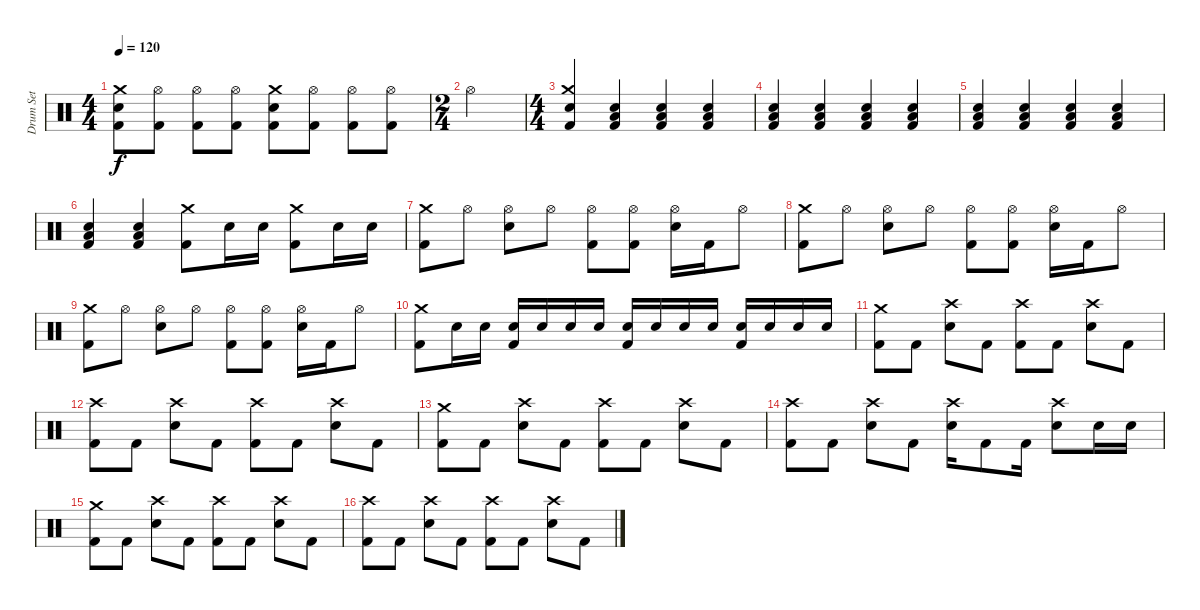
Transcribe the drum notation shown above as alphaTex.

\track ("Drum Set" "Drum Set") {instrument percussion}
\staff {score}
\articulation defaults
\ts (4 4)
\tempo 120
\clef neutral
\ks c
("Kick (hit) 2" "Crash medium (hit)" "Snare (hit) 2").8{dy f} ("Kick (hit) 2" "Hi-Hat (open)").8 ("Kick (hit) 2" "Hi-Hat (open)").8 ("Kick (hit) 2" "Hi-Hat (open)").8 ("Kick (hit) 2" "Crash medium (hit)" "Snare (hit) 2").8 ("Kick (hit) 2" "Hi-Hat (open)").8 ("Kick (hit) 2" "Hi-Hat (open)").8 ("Kick (hit) 2" "Hi-Hat (open)").8 |
\ts (2 4)
"Hi-Hat (open)".2 |
\ts (4 4)
("Kick (hit) 2" "Snare (hit) 2" "Crash medium (hit)").4 ("Kick (hit) 2" "Snare (hit) 2" "Low Tom (hit)").4 ("Kick (hit) 2" "Snare (hit) 2" "Low Tom (hit)").4 ("Kick (hit) 2" "Snare (hit) 2" "Low Tom (hit)").4 |
("Kick (hit) 2" "Snare (hit) 2" "Low Tom (hit)").4 ("Kick (hit) 2" "Snare (hit) 2" "Low Tom (hit)").4 ("Kick (hit) 2" "Snare (hit) 2" "Low Tom (hit)").4 ("Kick (hit) 2" "Snare (hit) 2" "Low Tom (hit)").4 |
("Kick (hit) 2" "Snare (hit) 2" "Low Tom (hit)").4 ("Kick (hit) 2" "Snare (hit) 2" "Low Tom (hit)").4 ("Kick (hit) 2" "Snare (hit) 2" "Low Tom (hit)").4 ("Kick (hit) 2" "Snare (hit) 2" "Low Tom (hit)").4 |
("Kick (hit) 2" "Snare (hit) 2" "Low Tom (hit)").4 ("Kick (hit) 2" "Snare (hit) 2" "Low Tom (hit)").4 ("Kick (hit) 2" "Crash medium (hit)").8 "Snare (hit) 2".16 "Snare (hit) 2".16 ("Kick (hit) 2" "Crash medium (hit)").8 "Snare (hit) 2".16 "Snare (hit) 2".16 |
("Crash medium (hit)" "Kick (hit) 2").8 "Hi-Hat (open)".8 ("Snare (hit) 2" "Hi-Hat (open)").8 "Hi-Hat (open)".8 ("Kick (hit) 2" "Hi-Hat (open)").8 ("Kick (hit) 2" "Hi-Hat (open)").8 ("Snare (hit) 2" "Hi-Hat (open)").16 "Kick (hit) 2".16 "Hi-Hat (open)".8 |
("Crash medium (hit)" "Kick (hit) 2").8 "Hi-Hat (open)".8 ("Snare (hit) 2" "Hi-Hat (open)").8 "Hi-Hat (open)".8 ("Kick (hit) 2" "Hi-Hat (open)").8 ("Kick (hit) 2" "Hi-Hat (open)").8 ("Snare (hit) 2" "Hi-Hat (open)").16 "Kick (hit) 2".16 "Hi-Hat (open)".8 |
("Crash medium (hit)" "Kick (hit) 2").8 "Hi-Hat (open)".8 ("Snare (hit) 2" "Hi-Hat (open)").8 "Hi-Hat (open)".8 ("Kick (hit) 2" "Hi-Hat (open)").8 ("Kick (hit) 2" "Hi-Hat (open)").8 ("Snare (hit) 2" "Hi-Hat (open)").16 "Kick (hit) 2".16 "Hi-Hat (open)".8 |
("Kick (hit) 2" "Crash medium (hit)").8 "Snare (hit) 2".16 "Snare (hit) 2".16 ("Snare (hit) 2" "Kick (hit) 2").16 "Snare (hit) 2".16 "Snare (hit) 2".16 "Snare (hit) 2".16 ("Snare (hit) 2" "Kick (hit) 2").16 "Snare (hit) 2".16 "Snare (hit) 2".16 "Snare (hit) 2".16 ("Snare (hit) 2" "Kick (hit) 2").16 "Snare (hit) 2".16 "Snare (hit) 2".16 "Snare (hit) 2".16 |
("Kick (hit) 2" "Crash medium (hit)").8 "Kick (hit) 2".8 ("Snare (hit) 2" "Crash high (hit)").8 "Kick (hit) 2".8 ("Kick (hit) 2" "Crash high (hit)").8 "Kick (hit) 2".8 ("Snare (hit) 2" "Crash high (hit)").8 "Kick (hit) 2".8 |
("Kick (hit) 2" "Crash high (hit)").8 "Kick (hit) 2".8 ("Snare (hit) 2" "Crash high (hit)").8 "Kick (hit) 2".8 ("Kick (hit) 2" "Crash high (hit)").8 "Kick (hit) 2".8 ("Snare (hit) 2" "Crash high (hit)").8 "Kick (hit) 2".8 |
("Kick (hit) 2" "Crash medium (hit)").8 "Kick (hit) 2".8 ("Snare (hit) 2" "Crash high (hit)").8 "Kick (hit) 2".8 ("Kick (hit) 2" "Crash high (hit)").8 "Kick (hit) 2".8 ("Snare (hit) 2" "Crash high (hit)").8 "Kick (hit) 2".8 |
("Kick (hit) 2" "Crash high (hit)").8 "Kick (hit) 2".8 ("Crash high (hit)" "Snare (hit) 2").8 "Kick (hit) 2".8 ("Snare (hit) 2" "Crash high (hit)").16 "Kick (hit) 2".8 "Kick (hit) 2".16 ("Crash high (hit)" "Snare (hit) 2").8 "Snare (hit) 2".16 "Snare (hit) 2".16 |
("Kick (hit) 2" "Crash medium (hit)").8 "Kick (hit) 2".8 ("Snare (hit) 2" "Crash high (hit)").8 "Kick (hit) 2".8 ("Kick (hit) 2" "Crash high (hit)").8 "Kick (hit) 2".8 ("Snare (hit) 2" "Crash high (hit)").8 "Kick (hit) 2".8 |
("Kick (hit) 2" "Crash high (hit)").8 "Kick (hit) 2".8 ("Snare (hit) 2" "Crash high (hit)").8 "Kick (hit) 2".8 ("Kick (hit) 2" "Crash high (hit)").8 "Kick (hit) 2".8 ("Snare (hit) 2" "Crash high (hit)").8 "Kick (hit) 2".8
